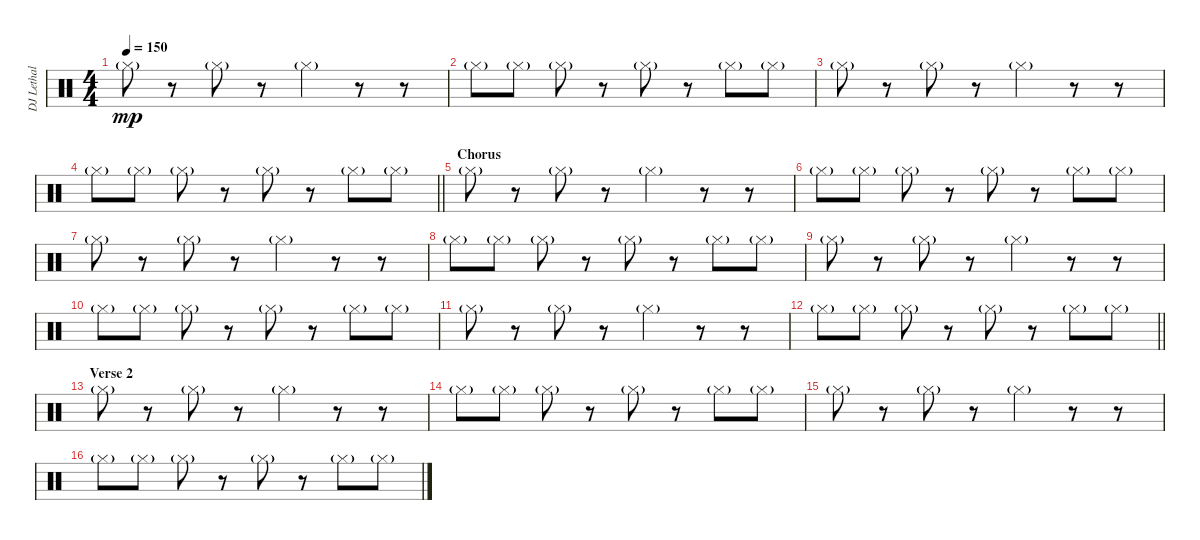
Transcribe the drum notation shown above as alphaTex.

\track ("DJ Lethal (Beats 2)" "DJ Lethal ") {instrument percussion}
\staff {score}
\articulation defaults
\ts (4 4)
\tempo 150
\clef neutral
\ks c "Hi-Hat (closed)"{g}.8{dy mp}
r.8 "Hi-Hat (closed)"{g}.8 r.8 "Hi-Hat (closed)"{g}.4 r.8 r.8 |
"Hi-Hat (closed)"{g}.8 "Hi-Hat (closed)"{g}.8 "Hi-Hat (closed)"{g}.8 r.8 "Hi-Hat (closed)"{g}.8 r.8 "Hi-Hat (closed)"{g}.8 "Hi-Hat (closed)"{g}.8 |
"Hi-Hat (closed)"{g}.8 r.8 "Hi-Hat (closed)"{g}.8 r.8 "Hi-Hat (closed)"{g}.4 r.8 r.8 |
\barLineRight lightlight "Hi-Hat (closed)"{g}.8 "Hi-Hat (closed)"{g}.8 "Hi-Hat (closed)"{g}.8
r.8 "Hi-Hat (closed)"{g}.8 r.8 "Hi-Hat (closed)"{g}.8 "Hi-Hat (closed)"{g}.8 |
\section ("" "Chorus")
"Hi-Hat (closed)"{g}.8 r.8 "Hi-Hat (closed)"{g}.8 r.8 "Hi-Hat (closed)"{g}.4 r.8 r.8 |
"Hi-Hat (closed)"{g}.8 "Hi-Hat (closed)"{g}.8 "Hi-Hat (closed)"{g}.8 r.8 "Hi-Hat (closed)"{g}.8 r.8 "Hi-Hat (closed)"{g}.8 "Hi-Hat (closed)"{g}.8 |
"Hi-Hat (closed)"{g}.8 r.8 "Hi-Hat (closed)"{g}.8 r.8 "Hi-Hat (closed)"{g}.4 r.8 r.8 |
"Hi-Hat (closed)"{g}.8 "Hi-Hat (closed)"{g}.8 "Hi-Hat (closed)"{g}.8 r.8 "Hi-Hat (closed)"{g}.8 r.8 "Hi-Hat (closed)"{g}.8 "Hi-Hat (closed)"{g}.8 |
"Hi-Hat (closed)"{g}.8 r.8 "Hi-Hat (closed)"{g}.8 r.8 "Hi-Hat (closed)"{g}.4 r.8 r.8 |
"Hi-Hat (closed)"{g}.8 "Hi-Hat (closed)"{g}.8 "Hi-Hat (closed)"{g}.8 r.8 "Hi-Hat (closed)"{g}.8 r.8 "Hi-Hat (closed)"{g}.8 "Hi-Hat (closed)"{g}.8 |
"Hi-Hat (closed)"{g}.8 r.8 "Hi-Hat (closed)"{g}.8 r.8 "Hi-Hat (closed)"{g}.4 r.8 r.8 |
\barLineRight lightlight "Hi-Hat (closed)"{g}.8 "Hi-Hat (closed)"{g}.8 "Hi-Hat (closed)"{g}.8
r.8 "Hi-Hat (closed)"{g}.8 r.8 "Hi-Hat (closed)"{g}.8 "Hi-Hat (closed)"{g}.8 |
\section ("" "Verse 2")
"Hi-Hat (closed)"{g}.8 r.8 "Hi-Hat (closed)"{g}.8 r.8 "Hi-Hat (closed)"{g}.4 r.8 r.8 |
"Hi-Hat (closed)"{g}.8 "Hi-Hat (closed)"{g}.8 "Hi-Hat (closed)"{g}.8 r.8 "Hi-Hat (closed)"{g}.8 r.8 "Hi-Hat (closed)"{g}.8 "Hi-Hat (closed)"{g}.8 |
"Hi-Hat (closed)"{g}.8 r.8 "Hi-Hat (closed)"{g}.8 r.8 "Hi-Hat (closed)"{g}.4 r.8 r.8 |
"Hi-Hat (closed)"{g}.8 "Hi-Hat (closed)"{g}.8 "Hi-Hat (closed)"{g}.8 r.8 "Hi-Hat (closed)"{g}.8 r.8 "Hi-Hat (closed)"{g}.8 "Hi-Hat (closed)"{g}.8
